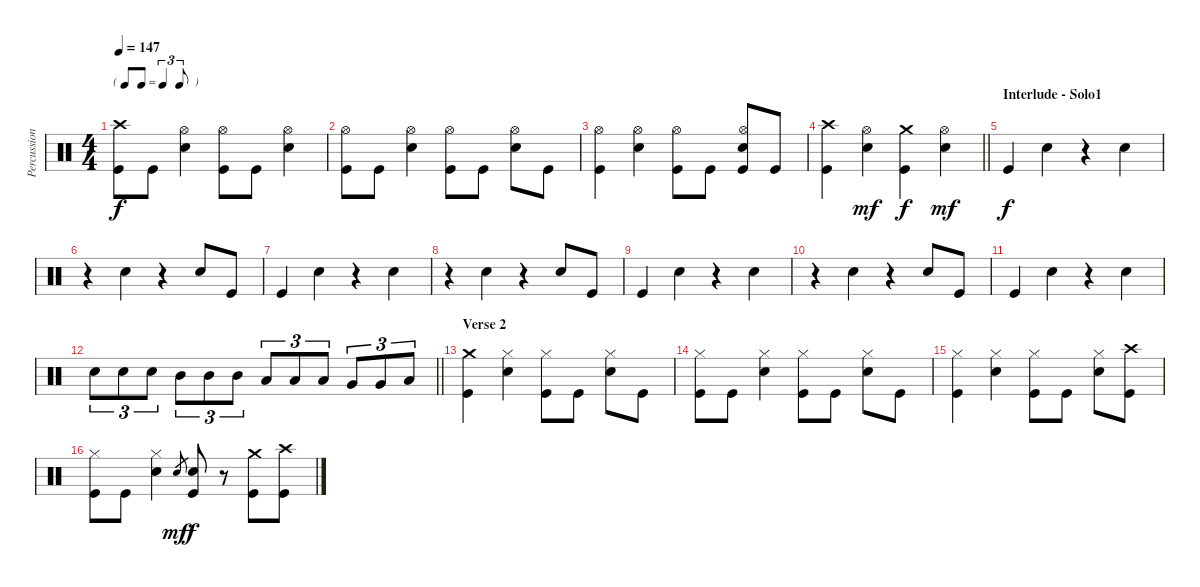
\track ("Percussion" "Percussion") {instrument percussion}
\staff {score}
\articulation defaults
\ts (4 4)
\tf triplet8th
\tempo 147
\clef neutral
\ks c
("Kick (hit)" "Crash high (hit)").8{dy f} "Kick (hit)".8 ("Hi-Hat (open)" "Snare (hit) 2").4 ("Kick (hit)" "Hi-Hat (open)").8 "Kick (hit)".8 ("Hi-Hat (open)" "Snare (hit) 2").4 |
("Kick (hit)" "Hi-Hat (open)").8 "Kick (hit)".8 ("Hi-Hat (open)" "Snare (hit) 2").4 ("Kick (hit)" "Hi-Hat (open)").8 "Kick (hit)".8 ("Hi-Hat (open)" "Snare (hit) 2").8 "Kick (hit)".8 |
("Kick (hit)" "Hi-Hat (open)").4 ("Hi-Hat (open)" "Snare (hit) 2").4 ("Kick (hit)" "Hi-Hat (open)").8 "Kick (hit)".8 ("Kick (hit)" "Hi-Hat (open)" "Snare (hit) 2").8 "Kick (hit)".8 |
\barLineRight lightlight
("Kick (hit)" "Crash high (hit)").4 ("Hi-Hat (open)" "Snare (hit) 2").4{dy mf} ("Kick (hit)" "Crash medium (hit)").4{dy f} ("Hi-Hat (open)" "Snare (hit) 2").4{dy mf} |
\section ("" "Interlude - Solo1")
"Kick (hit)".4{dy f} "Snare (hit) 2".4 r.4 "Snare (hit) 2".4 |
r.4 "Snare (hit) 2".4 r.4 "Snare (hit) 2".8 "Kick (hit)".8 |
"Kick (hit)".4 "Snare (hit) 2".4 r.4 "Snare (hit) 2".4 |
r.4 "Snare (hit) 2".4 r.4 "Snare (hit) 2".8 "Kick (hit)".8 |
"Kick (hit)".4 "Snare (hit) 2".4 r.4 "Snare (hit) 2".4 |
r.4 "Snare (hit) 2".4 r.4 "Snare (hit) 2".8 "Kick (hit)".8 |
"Kick (hit)".4 "Snare (hit) 2".4 r.4 "Snare (hit) 2".4 |
\barLineRight lightlight "Snare (hit) 2".8{tu (3 2)} "Snare (hit) 2".8{tu (3 2)} "Snare (hit) 2".8{tu (3 2)} "Mid Tom (hit)".8{tu (3 2)} "Mid Tom (hit)".8{tu (3 2)} "Mid Tom (hit)".8{tu (3 2)} "Low Tom (hit)".8{tu (3 2)} "Low Tom (hit)".8{tu (3 2)} "Low Tom (hit)".8{tu (3 2)} "Very Low Tom (hit)".8{tu (3 2)} "Very Low Tom (hit)".8{tu (3 2)} "Low Floor Tom (hit)".8{tu (3 2)}
|
\section ("" "Verse 2")
("Kick (hit)" "Crash medium (hit)").4 ("Hi-Hat (closed)" "Snare (hit) 2").4 ("Kick (hit)" "Hi-Hat (closed)").8 "Kick (hit)".8 ("Hi-Hat (closed)" "Snare (hit) 2").8 "Kick (hit)".8 |
("Kick (hit)" "Hi-Hat (closed)").8 "Kick (hit)".8 ("Hi-Hat (closed)" "Snare (hit) 2").4 ("Kick (hit)" "Hi-Hat (closed)").8 "Kick (hit)".8 ("Hi-Hat (closed)" "Snare (hit) 2").8 "Kick (hit)".8 |
("Kick (hit)" "Hi-Hat (closed)").4 ("Hi-Hat (closed)" "Snare (hit) 2").4 ("Kick (hit)" "Hi-Hat (closed)").8 "Kick (hit)".8 ("Hi-Hat (closed)" "Snare (hit) 2").8 ("Kick (hit)" "Crash high (hit)").8 |
("Kick (hit)" "Hi-Hat (closed)").8 "Kick (hit)".8 ("Hi-Hat (closed)" "Snare (hit) 2").4 "Snare (hit) 2".8{gr dy mf} ("Kick (hit)" "Snare (hit) 2").8{dy f} r.8 ("Kick (hit)" "Crash medium (hit)").8 ("Kick (hit)" "Crash high (hit)").8
